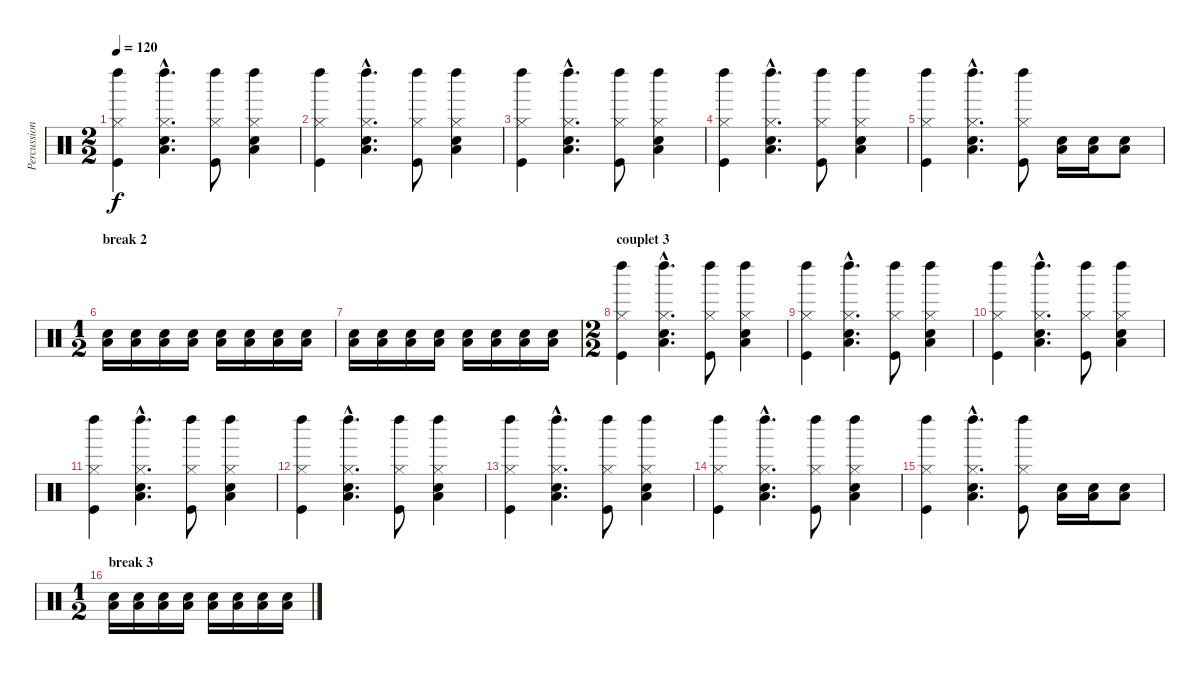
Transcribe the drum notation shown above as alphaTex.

\track ("Percussions" "Percussion") {instrument percussion}
\staff {score}
\articulation defaults
\ts (2 2)
\tempo 120
\clef neutral
\ks c
("Hi-Hat (closed)" "Left Maraca (hit)" "Kick (hit)").4{dy f} ("Hi-Hat (closed)"{hac} "Left Maraca (hit)"{hac} "Low Floor Tom (hit)"{hac} "Hand Clap (hit)"{hac}).4{d} ("Hi-Hat (closed)" "Left Maraca (hit)" "Kick (hit)").8 ("Hi-Hat (closed)" "Left Maraca (hit)" "Low Floor Tom (hit)" "Hand Clap (hit)").4 |
("Hi-Hat (closed)" "Left Maraca (hit)" "Kick (hit)").4 ("Hi-Hat (closed)"{hac} "Left Maraca (hit)"{hac} "Low Floor Tom (hit)"{hac} "Hand Clap (hit)"{hac}).4{d} ("Hi-Hat (closed)" "Left Maraca (hit)" "Kick (hit)").8 ("Hi-Hat (closed)" "Left Maraca (hit)" "Low Floor Tom (hit)" "Hand Clap (hit)").4 |
("Hi-Hat (closed)" "Left Maraca (hit)" "Kick (hit)").4 ("Hi-Hat (closed)"{hac} "Left Maraca (hit)"{hac} "Low Floor Tom (hit)"{hac} "Hand Clap (hit)"{hac}).4{d} ("Hi-Hat (closed)" "Left Maraca (hit)" "Kick (hit)").8 ("Hi-Hat (closed)" "Left Maraca (hit)" "Low Floor Tom (hit)" "Hand Clap (hit)").4 |
("Hi-Hat (closed)" "Left Maraca (hit)" "Kick (hit)").4 ("Hi-Hat (closed)"{hac} "Left Maraca (hit)"{hac} "Low Floor Tom (hit)"{hac} "Hand Clap (hit)"{hac}).4{d} ("Hi-Hat (closed)" "Left Maraca (hit)" "Kick (hit)").8 ("Hi-Hat (closed)" "Left Maraca (hit)" "Low Floor Tom (hit)" "Hand Clap (hit)").4 |
("Hi-Hat (closed)" "Left Maraca (hit)" "Kick (hit)").4 ("Hi-Hat (closed)"{hac} "Left Maraca (hit)"{hac} "Low Floor Tom (hit)"{hac} "Hand Clap (hit)"{hac}).4{d} ("Hi-Hat (closed)" "Left Maraca (hit)" "Kick (hit)").8 ("Low Floor Tom (hit)" "Hand Clap (hit)").16 ("Low Floor Tom (hit)" "Hand Clap (hit)").16 ("Low Floor Tom (hit)" "Hand Clap (hit)").8 |
\ts (1 2)
\section ("" "break 2")
("Low Floor Tom (hit)" "Hand Clap (hit)").16 ("Low Floor Tom (hit)" "Hand Clap (hit)").16 ("Low Floor Tom (hit)" "Hand Clap (hit)").16 ("Low Floor Tom (hit)" "Hand Clap (hit)").16 ("Low Floor Tom (hit)" "Hand Clap (hit)").16 ("Low Floor Tom (hit)" "Hand Clap (hit)").16 ("Low Floor Tom (hit)" "Hand Clap (hit)").16 ("Low Floor Tom (hit)" "Hand Clap (hit)").16 |
("Low Floor Tom (hit)" "Hand Clap (hit)").16 ("Low Floor Tom (hit)" "Hand Clap (hit)").16 ("Low Floor Tom (hit)" "Hand Clap (hit)").16 ("Low Floor Tom (hit)" "Hand Clap (hit)").16 ("Low Floor Tom (hit)" "Hand Clap (hit)").16 ("Low Floor Tom (hit)" "Hand Clap (hit)").16 ("Low Floor Tom (hit)" "Hand Clap (hit)").16 ("Low Floor Tom (hit)" "Hand Clap (hit)").16 |
\ts (2 2)
\section ("" "couplet 3")
("Hi-Hat (closed)" "Left Maraca (hit)" "Kick (hit)").4 ("Hi-Hat (closed)"{hac} "Left Maraca (hit)"{hac} "Low Floor Tom (hit)"{hac} "Hand Clap (hit)"{hac}).4{d} ("Hi-Hat (closed)" "Left Maraca (hit)" "Kick (hit)").8 ("Hi-Hat (closed)" "Left Maraca (hit)" "Low Floor Tom (hit)" "Hand Clap (hit)").4 |
("Hi-Hat (closed)" "Left Maraca (hit)" "Kick (hit)").4 ("Hi-Hat (closed)"{hac} "Left Maraca (hit)"{hac} "Low Floor Tom (hit)"{hac} "Hand Clap (hit)"{hac}).4{d} ("Hi-Hat (closed)" "Left Maraca (hit)" "Kick (hit)").8 ("Hi-Hat (closed)" "Left Maraca (hit)" "Low Floor Tom (hit)" "Hand Clap (hit)").4 |
("Hi-Hat (closed)" "Left Maraca (hit)" "Kick (hit)").4 ("Hi-Hat (closed)"{hac} "Left Maraca (hit)"{hac} "Low Floor Tom (hit)"{hac} "Hand Clap (hit)"{hac}).4{d} ("Hi-Hat (closed)" "Left Maraca (hit)" "Kick (hit)").8 ("Hi-Hat (closed)" "Left Maraca (hit)" "Low Floor Tom (hit)" "Hand Clap (hit)").4 |
("Hi-Hat (closed)" "Left Maraca (hit)" "Kick (hit)").4 ("Hi-Hat (closed)"{hac} "Left Maraca (hit)"{hac} "Low Floor Tom (hit)"{hac} "Hand Clap (hit)"{hac}).4{d} ("Hi-Hat (closed)" "Left Maraca (hit)" "Kick (hit)").8 ("Hi-Hat (closed)" "Left Maraca (hit)" "Low Floor Tom (hit)" "Hand Clap (hit)").4 |
("Hi-Hat (closed)" "Left Maraca (hit)" "Kick (hit)").4 ("Hi-Hat (closed)"{hac} "Left Maraca (hit)"{hac} "Low Floor Tom (hit)"{hac} "Hand Clap (hit)"{hac}).4{d} ("Hi-Hat (closed)" "Left Maraca (hit)" "Kick (hit)").8 ("Hi-Hat (closed)" "Left Maraca (hit)" "Low Floor Tom (hit)" "Hand Clap (hit)").4 |
("Hi-Hat (closed)" "Left Maraca (hit)" "Kick (hit)").4 ("Hi-Hat (closed)"{hac} "Left Maraca (hit)"{hac} "Low Floor Tom (hit)"{hac} "Hand Clap (hit)"{hac}).4{d} ("Hi-Hat (closed)" "Left Maraca (hit)" "Kick (hit)").8 ("Hi-Hat (closed)" "Left Maraca (hit)" "Low Floor Tom (hit)" "Hand Clap (hit)").4 |
("Hi-Hat (closed)" "Left Maraca (hit)" "Kick (hit)").4 ("Hi-Hat (closed)"{hac} "Left Maraca (hit)"{hac} "Low Floor Tom (hit)"{hac} "Hand Clap (hit)"{hac}).4{d} ("Hi-Hat (closed)" "Left Maraca (hit)" "Kick (hit)").8 ("Hi-Hat (closed)" "Left Maraca (hit)" "Low Floor Tom (hit)" "Hand Clap (hit)").4 |
("Hi-Hat (closed)" "Left Maraca (hit)" "Kick (hit)").4 ("Hi-Hat (closed)"{hac} "Left Maraca (hit)"{hac} "Low Floor Tom (hit)"{hac} "Hand Clap (hit)"{hac}).4{d} ("Hi-Hat (closed)" "Left Maraca (hit)" "Kick (hit)").8 ("Low Floor Tom (hit)" "Hand Clap (hit)").16 ("Low Floor Tom (hit)" "Hand Clap (hit)").16 ("Low Floor Tom (hit)" "Hand Clap (hit)").8 |
\ts (1 2)
\section ("" "break 3")
("Low Floor Tom (hit)" "Hand Clap (hit)").16 ("Low Floor Tom (hit)" "Hand Clap (hit)").16 ("Low Floor Tom (hit)" "Hand Clap (hit)").16 ("Low Floor Tom (hit)" "Hand Clap (hit)").16 ("Low Floor Tom (hit)" "Hand Clap (hit)").16 ("Low Floor Tom (hit)" "Hand Clap (hit)").16 ("Low Floor Tom (hit)" "Hand Clap (hit)").16 ("Low Floor Tom (hit)" "Hand Clap (hit)").16
